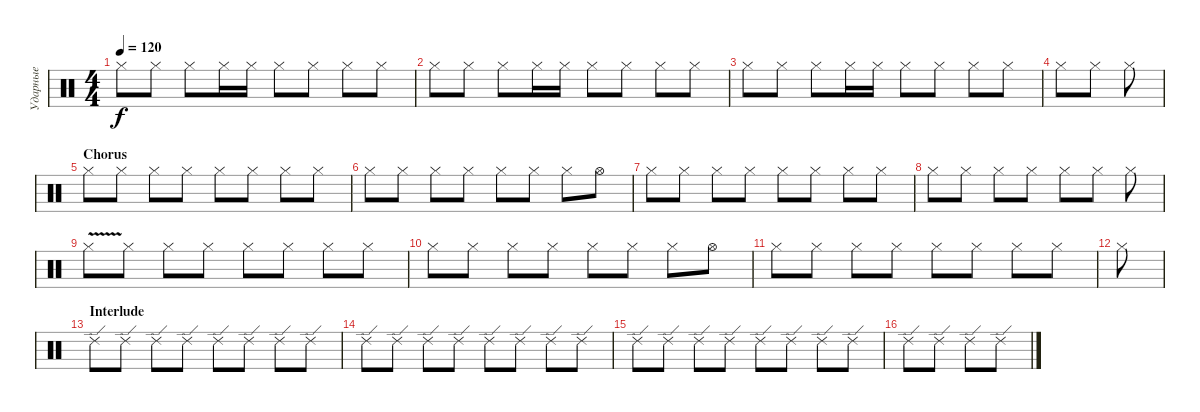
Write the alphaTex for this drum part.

\track ("Ударные" "Ударные") {instrument percussion}
\staff {score}
\articulation defaults
\ts (4 4)
\tempo 120
\clef neutral
\ks c "Hi-Hat (closed)".8{dy f} "Hi-Hat (closed)".8 "Hi-Hat (closed)".8 "Hi-Hat (closed)".16 "Hi-Hat (closed)".16 "Hi-Hat (closed)".8 "Hi-Hat (closed)".8 "Hi-Hat (closed)".8 "Hi-Hat (closed)".8
|
"Hi-Hat (closed)".8 "Hi-Hat (closed)".8 "Hi-Hat (closed)".8 "Hi-Hat (closed)".16 "Hi-Hat (closed)".16 "Hi-Hat (closed)".8 "Hi-Hat (closed)".8 "Hi-Hat (closed)".8 "Hi-Hat (closed)".8 |
"Hi-Hat (closed)".8 "Hi-Hat (closed)".8 "Hi-Hat (closed)".8 "Hi-Hat (closed)".16 "Hi-Hat (closed)".16 "Hi-Hat (closed)".8 "Hi-Hat (closed)".8 "Hi-Hat (closed)".8 "Hi-Hat (closed)".8 |
"Hi-Hat (closed)".8 "Hi-Hat (closed)".8 "Hi-Hat (closed)".8 |
\section ("" "Chorus")
"Hi-Hat (closed)".8 "Hi-Hat (closed)".8 "Hi-Hat (closed)".8 "Hi-Hat (closed)".8 "Hi-Hat (closed)".8 "Hi-Hat (closed)".8 "Hi-Hat (closed)".8 "Hi-Hat (closed)".8 |
"Hi-Hat (closed)".8 "Hi-Hat (closed)".8 "Hi-Hat (closed)".8 "Hi-Hat (closed)".8 "Hi-Hat (closed)".8 "Hi-Hat (closed)".8 "Hi-Hat (closed)".8 "Hi-Hat (open)".8 |
"Hi-Hat (closed)".8 "Hi-Hat (closed)".8 "Hi-Hat (closed)".8 "Hi-Hat (closed)".8 "Hi-Hat (closed)".8 "Hi-Hat (closed)".8 "Hi-Hat (closed)".8 "Hi-Hat (closed)".8 |
"Hi-Hat (closed)".8 "Hi-Hat (closed)".8 "Hi-Hat (closed)".8 "Hi-Hat (closed)".8 "Hi-Hat (closed)".8 "Hi-Hat (closed)".8 "Hi-Hat (closed)".8 |
"Hi-Hat (closed)"{v}.8 "Hi-Hat (closed)".8 "Hi-Hat (closed)".8 "Hi-Hat (closed)".8 "Hi-Hat (closed)".8 "Hi-Hat (closed)".8 "Hi-Hat (closed)".8 "Hi-Hat (closed)".8 |
"Hi-Hat (closed)".8 "Hi-Hat (closed)".8 "Hi-Hat (closed)".8 "Hi-Hat (closed)".8 "Hi-Hat (closed)".8 "Hi-Hat (closed)".8 "Hi-Hat (closed)".8 "Hi-Hat (open)".8 |
"Hi-Hat (closed)".8 "Hi-Hat (closed)".8 "Hi-Hat (closed)".8 "Hi-Hat (closed)".8 "Hi-Hat (closed)".8 "Hi-Hat (closed)".8 "Hi-Hat (closed)".8 "Hi-Hat (closed)".8 |
"Hi-Hat (closed)".8 |
\section ("" "Interlude")
"Ride (edge) 2".8 "Ride (edge) 2".8 "Ride (edge) 2".8 "Ride (edge) 2".8 "Ride (edge) 2".8 "Ride (edge) 2".8 "Ride (edge) 2".8 "Ride (edge) 2".8 |
"Ride (edge) 2".8 "Ride (edge) 2".8 "Ride (edge) 2".8 "Ride (edge) 2".8 "Ride (edge) 2".8 "Ride (edge) 2".8 "Ride (edge) 2".8 "Ride (edge) 2".8 |
"Ride (edge) 2".8 "Ride (edge) 2".8 "Ride (edge) 2".8 "Ride (edge) 2".8 "Ride (edge) 2".8 "Ride (edge) 2".8 "Ride (edge) 2".8 "Ride (edge) 2".8 |
"Ride (edge) 2".8 "Ride (edge) 2".8 "Ride (edge) 2".8 "Ride (edge) 2".8
